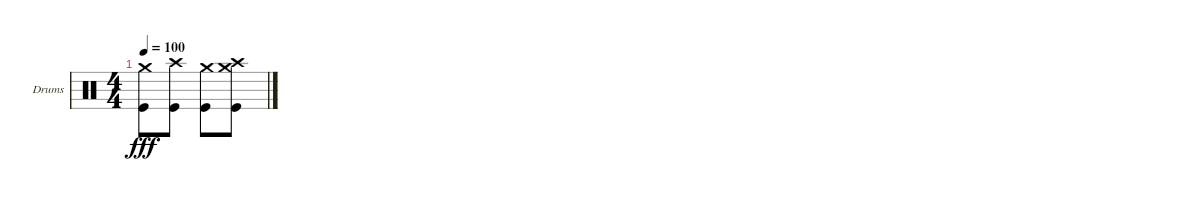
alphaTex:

\bracketExtendMode groupsimilarinstruments
\firstSystemTrackNameOrientation horizontal
\otherSystemsTrackNameOrientation horizontal
\track ("Drumkit" "Drums") {instrument percussion}
\staff {score}
\articulation defaults
\ts (4 4)
\tempo 100
\clef neutral
\ks c
("Kick (hit)" "Crash medium (hit)").8{dy fff} ("Kick (hit)" "Crash high (hit)").8 ("Kick (hit)" "Crash medium (hit)").8 ("Kick (hit)" "Crash high (hit)" "Crash medium (hit)").8
